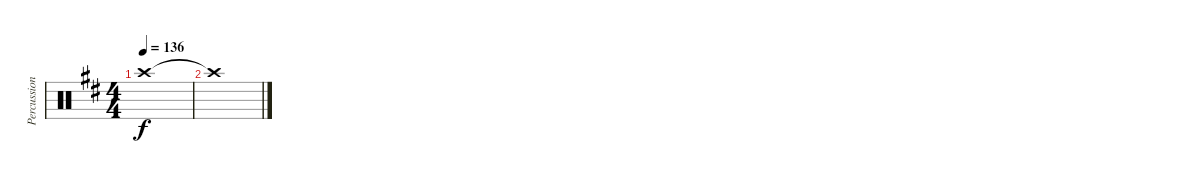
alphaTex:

\track ("Percussion" "Percussion") {instrument percussion}
\staff {score}
\articulation defaults
\ts (4 4)
\tempo 136
\clef neutral
\ks d "Crash high (hit)"{t}.1{dy f}
|
"Crash high (hit)"{t}.1
